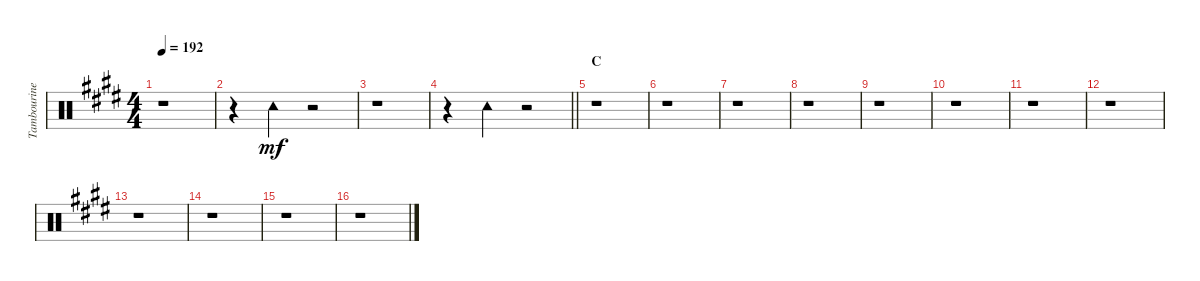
\track ("Tambourine" "Tambourine") {instrument percussion}
\staff {score}
\articulation defaults
\ts (4 4)
\tempo 192
\clef neutral
\ks e
r.1{dy mf} |
r.4 "Tambourine (hit)".4 r.2 |
r.1 |
\barLineRight lightlight
r.4 "Tambourine (hit)".4 r.2 |
\section ("" "C")
r.1 |
r.1 |
r.1 |
r.1 |
r.1 |
r.1 |
r.1 |
r.1 |
r.1 |
r.1 |
r.1 |
r.1
